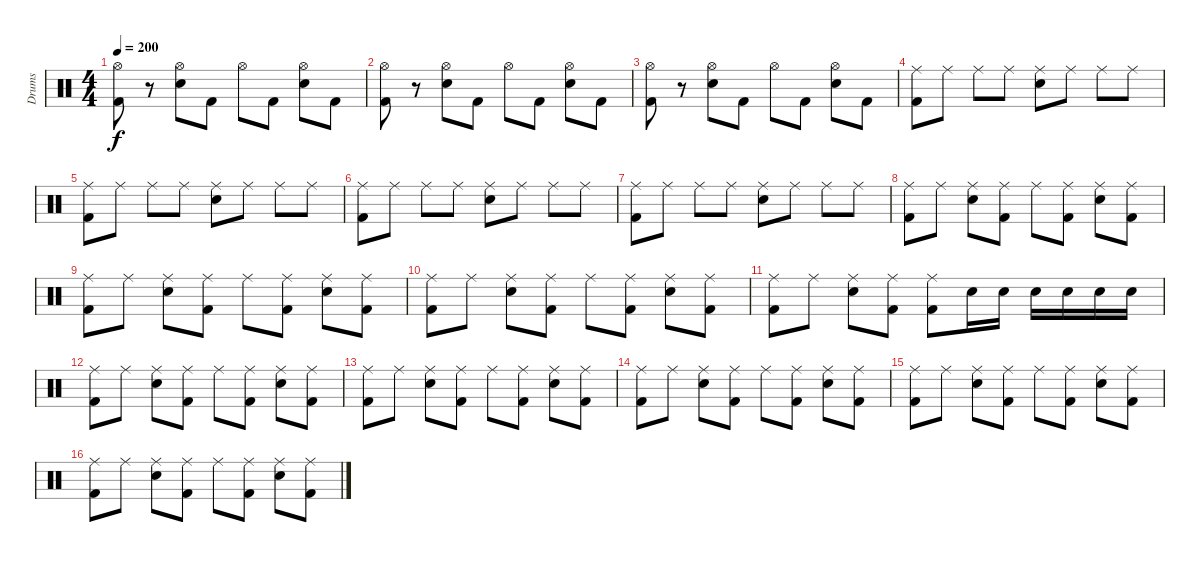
\track ("Drums" "Drums") {instrument percussion}
\staff {score}
\articulation defaults
\ts (4 4)
\tempo 200
\clef neutral
\ks c
("Kick (hit) 2" "Hi-Hat (open)").8{dy f} r.8 ("Electric Snare (hit)" "Hi-Hat (open)").8 "Kick (hit) 2".8 "Hi-Hat (open)".8 "Kick (hit) 2".8 ("Electric Snare (hit)" "Hi-Hat (open)").8 "Kick (hit) 2".8 |
("Kick (hit) 2" "Hi-Hat (open)").8 r.8 ("Electric Snare (hit)" "Hi-Hat (open)").8 "Kick (hit) 2".8 "Hi-Hat (open)".8 "Kick (hit) 2".8 ("Electric Snare (hit)" "Hi-Hat (open)").8 "Kick (hit) 2".8 |
("Kick (hit) 2" "Hi-Hat (open)").8 r.8 ("Electric Snare (hit)" "Hi-Hat (open)").8 "Kick (hit) 2".8 "Hi-Hat (open)".8 "Kick (hit) 2".8 ("Electric Snare (hit)" "Hi-Hat (open)").8 "Kick (hit) 2".8 |
("Kick (hit) 2" "Ride (middle)").8 "Ride (middle)".8 "Ride (middle)".8 "Ride (middle)".8 ("Electric Snare (hit)" "Ride (middle)").8 "Ride (middle)".8 "Ride (middle)".8 "Ride (middle)".8 |
("Kick (hit) 2" "Ride (middle)").8 "Ride (middle)".8 "Ride (middle)".8 "Ride (middle)".8 ("Electric Snare (hit)" "Ride (middle)").8 "Ride (middle)".8 "Ride (middle)".8 "Ride (middle)".8 |
("Kick (hit) 2" "Ride (middle)").8 "Ride (middle)".8 "Ride (middle)".8 "Ride (middle)".8 ("Electric Snare (hit)" "Ride (middle)").8 "Ride (middle)".8 "Ride (middle)".8 "Ride (middle)".8 |
("Kick (hit) 2" "Ride (middle)").8 "Ride (middle)".8 "Ride (middle)".8 "Ride (middle)".8 ("Electric Snare (hit)" "Ride (middle)").8 "Ride (middle)".8 "Ride (middle)".8 "Ride (middle)".8 |
("Kick (hit) 2" "Ride (middle)").8 "Ride (middle)".8 ("Electric Snare (hit)" "Ride (middle)").8 ("Kick (hit) 2" "Ride (middle)").8 "Ride (middle)".8 ("Kick (hit) 2" "Ride (middle)").8 ("Electric Snare (hit)" "Ride (middle)").8 ("Kick (hit) 2" "Ride (middle)").8 |
("Kick (hit) 2" "Ride (middle)").8 "Ride (middle)".8 ("Electric Snare (hit)" "Ride (middle)").8 ("Kick (hit) 2" "Ride (middle)").8 "Ride (middle)".8 ("Kick (hit) 2" "Ride (middle)").8 ("Electric Snare (hit)" "Ride (middle)").8 ("Kick (hit) 2" "Ride (middle)").8 |
("Kick (hit) 2" "Ride (middle)").8 "Ride (middle)".8 ("Electric Snare (hit)" "Ride (middle)").8 ("Kick (hit) 2" "Ride (middle)").8 "Ride (middle)".8 ("Kick (hit) 2" "Ride (middle)").8 ("Electric Snare (hit)" "Ride (middle)").8 ("Kick (hit) 2" "Ride (middle)").8 |
("Kick (hit) 2" "Ride (middle)").8 "Ride (middle)".8 ("Electric Snare (hit)" "Ride (middle)").8 ("Kick (hit) 2" "Ride (middle)").8 ("Kick (hit) 2" "Ride (middle)").8 "Electric Snare (hit)".16 "Electric Snare (hit)".16 "Electric Snare (hit)".16 "Electric Snare (hit)".16 "Electric Snare (hit)".16 "Electric Snare (hit)".16 |
("Kick (hit) 2" "Ride (middle)").8 "Ride (middle)".8 ("Electric Snare (hit)" "Ride (middle)").8 ("Kick (hit) 2" "Ride (middle)").8 "Ride (middle)".8 ("Kick (hit) 2" "Ride (middle)").8 ("Electric Snare (hit)" "Ride (middle)").8 ("Kick (hit) 2" "Ride (middle)").8 |
("Kick (hit) 2" "Ride (middle)").8 "Ride (middle)".8 ("Electric Snare (hit)" "Ride (middle)").8 ("Kick (hit) 2" "Ride (middle)").8 "Ride (middle)".8 ("Kick (hit) 2" "Ride (middle)").8 ("Electric Snare (hit)" "Ride (middle)").8 ("Kick (hit) 2" "Ride (middle)").8 |
("Kick (hit) 2" "Ride (middle)").8 "Ride (middle)".8 ("Electric Snare (hit)" "Ride (middle)").8 ("Kick (hit) 2" "Ride (middle)").8 "Ride (middle)".8 ("Kick (hit) 2" "Ride (middle)").8 ("Electric Snare (hit)" "Ride (middle)").8 ("Kick (hit) 2" "Ride (middle)").8 |
("Kick (hit) 2" "Ride (middle)").8 "Ride (middle)".8 ("Electric Snare (hit)" "Ride (middle)").8 ("Kick (hit) 2" "Ride (middle)").8 "Ride (middle)".8 ("Kick (hit) 2" "Ride (middle)").8 ("Electric Snare (hit)" "Ride (middle)").8 ("Kick (hit) 2" "Ride (middle)").8 |
("Kick (hit) 2" "Ride (middle)").8 "Ride (middle)".8 ("Electric Snare (hit)" "Ride (middle)").8 ("Kick (hit) 2" "Ride (middle)").8 "Ride (middle)".8 ("Kick (hit) 2" "Ride (middle)").8 ("Electric Snare (hit)" "Ride (middle)").8 ("Kick (hit) 2" "Ride (middle)").8
